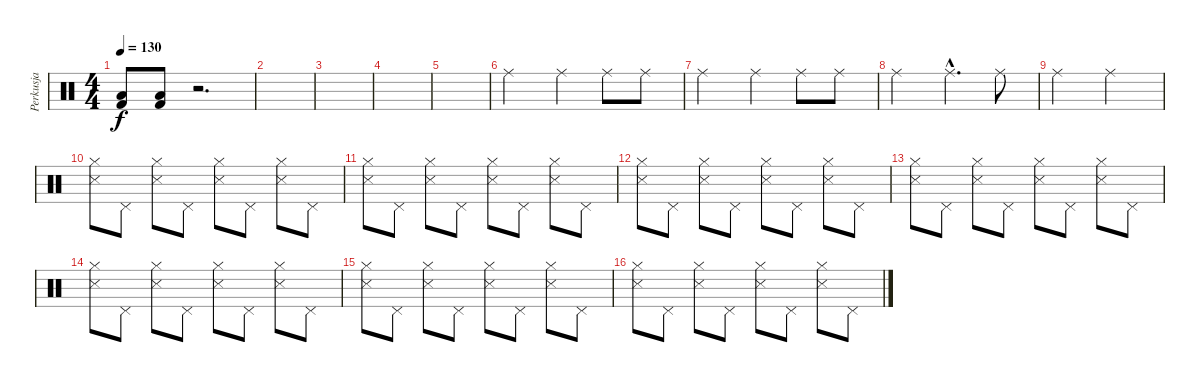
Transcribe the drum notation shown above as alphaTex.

\track ("Perkusja" "Perkusja") {instrument percussion}
\staff {score}
\articulation defaults
\ts (4 4)
\tempo 130
\clef neutral
\ks c
("Low Floor Tom (hit)" "Kick (hit) 2").8{dy f} ("Low Floor Tom (hit)" "Kick (hit) 2").8 r.2{d} |
|
|
|
|
"Ride (middle)".2 "Ride (middle)".4 "Ride (middle)".8 "Ride (middle)".8 |
"Ride (middle)".2 "Ride (middle)".4 "Ride (middle)".8 "Ride (middle)".8 |
"Ride (middle)".2 "Ride (middle)"{hac}.4{d} "Ride (middle)".8 |
"Ride (middle)".2 "Ride (middle)".2 |
("Hi-Hat (closed)" "Snare (side stick) 3").8 "Pedal Hi-Hat (hit)".8 ("Hi-Hat (closed)" "Snare (side stick) 3").8 "Pedal Hi-Hat (hit)".8 ("Hi-Hat (closed)" "Snare (side stick) 3").8 "Pedal Hi-Hat (hit)".8 ("Hi-Hat (closed)" "Snare (side stick) 3").8 "Pedal Hi-Hat (hit)".8 |
("Hi-Hat (closed)" "Snare (side stick) 3").8 "Pedal Hi-Hat (hit)".8 ("Hi-Hat (closed)" "Snare (side stick) 3").8 "Pedal Hi-Hat (hit)".8 ("Hi-Hat (closed)" "Snare (side stick) 3").8 "Pedal Hi-Hat (hit)".8 ("Hi-Hat (closed)" "Snare (side stick) 3").8 "Pedal Hi-Hat (hit)".8 |
("Hi-Hat (closed)" "Snare (side stick) 3").8 "Pedal Hi-Hat (hit)".8 ("Hi-Hat (closed)" "Snare (side stick) 3").8 "Pedal Hi-Hat (hit)".8 ("Hi-Hat (closed)" "Snare (side stick) 3").8 "Pedal Hi-Hat (hit)".8 ("Hi-Hat (closed)" "Snare (side stick) 3").8 "Pedal Hi-Hat (hit)".8 |
("Hi-Hat (closed)" "Snare (side stick) 3").8 "Pedal Hi-Hat (hit)".8 ("Hi-Hat (closed)" "Snare (side stick) 3").8 "Pedal Hi-Hat (hit)".8 ("Hi-Hat (closed)" "Snare (side stick) 3").8 "Pedal Hi-Hat (hit)".8 ("Hi-Hat (closed)" "Snare (side stick) 3").8 "Pedal Hi-Hat (hit)".8 |
("Hi-Hat (closed)" "Snare (side stick) 3").8 "Pedal Hi-Hat (hit)".8 ("Hi-Hat (closed)" "Snare (side stick) 3").8 "Pedal Hi-Hat (hit)".8 ("Hi-Hat (closed)" "Snare (side stick) 3").8 "Pedal Hi-Hat (hit)".8 ("Hi-Hat (closed)" "Snare (side stick) 3").8 "Pedal Hi-Hat (hit)".8 |
("Hi-Hat (closed)" "Snare (side stick) 3").8 "Pedal Hi-Hat (hit)".8 ("Hi-Hat (closed)" "Snare (side stick) 3").8 "Pedal Hi-Hat (hit)".8 ("Hi-Hat (closed)" "Snare (side stick) 3").8 "Pedal Hi-Hat (hit)".8 ("Hi-Hat (closed)" "Snare (side stick) 3").8 "Pedal Hi-Hat (hit)".8 |
("Hi-Hat (closed)" "Snare (side stick) 3").8 "Pedal Hi-Hat (hit)".8 ("Hi-Hat (closed)" "Snare (side stick) 3").8 "Pedal Hi-Hat (hit)".8 ("Hi-Hat (closed)" "Snare (side stick) 3").8 "Pedal Hi-Hat (hit)".8 ("Hi-Hat (closed)" "Snare (side stick) 3").8 "Pedal Hi-Hat (hit)".8
